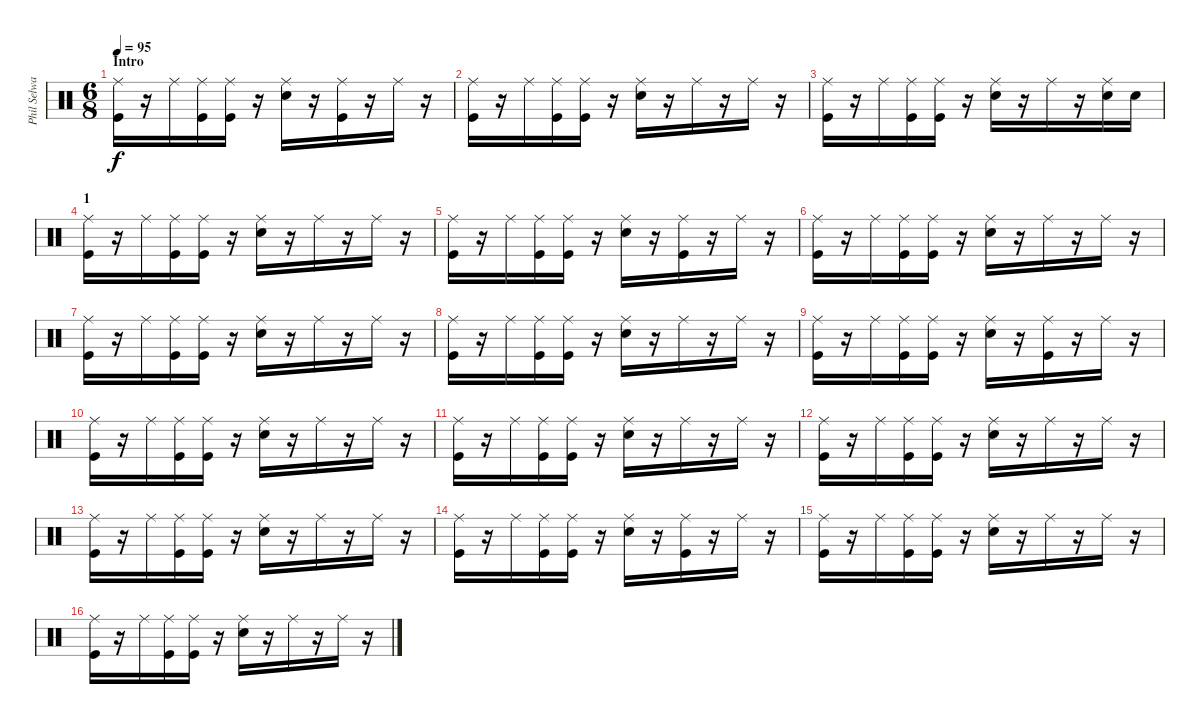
\track ("Phil Selway (Percussions)" "Phil Selwa") {instrument percussion}
\staff {score}
\articulation defaults
\ts (6 8)
\section ("" "Intro")
\tempo 95
\clef neutral
\ks c
("Ride (middle)" "Kick (hit)").16{dy f} r.16 "Ride (middle)".16 ("Ride (middle)" "Kick (hit)").16 ("Ride (middle)" "Kick (hit)").16 r.16 ("Ride (middle)" "Electric Snare (hit)").16 r.16 ("Ride (middle)" "Kick (hit)").16 r.16 "Ride (middle)".16 r.16 |
("Ride (middle)" "Kick (hit)").16 r.16 "Ride (middle)".16 ("Ride (middle)" "Kick (hit)").16 ("Ride (middle)" "Kick (hit)").16 r.16 ("Ride (middle)" "Electric Snare (hit)"{tr (38 32)}).16 r.16 "Ride (middle)".16 r.16 "Ride (middle)".16 r.16 |
("Ride (middle)" "Kick (hit)").16 r.16 "Ride (middle)".16 ("Ride (middle)" "Kick (hit)").16 ("Ride (middle)" "Kick (hit)").16 r.16 ("Ride (middle)" "Electric Snare (hit)").16 r.16 "Ride (middle)".16 r.16 ("Ride (middle)" "Electric Snare (hit)").16 "Electric Snare (hit)".16 |
\section ("" "1")
("Ride (middle)" "Kick (hit)").16 r.16 "Ride (middle)".16 ("Ride (middle)" "Kick (hit)").16 ("Ride (middle)" "Kick (hit)").16 r.16 ("Ride (middle)" "Electric Snare (hit)").16 r.16 "Ride (middle)".16 r.16 "Ride (middle)".16 r.16 |
("Ride (middle)" "Kick (hit)").16 r.16 "Ride (middle)".16 ("Ride (middle)" "Kick (hit)").16 ("Ride (middle)" "Kick (hit)").16 r.16 ("Ride (middle)" "Electric Snare (hit)").16 r.16 ("Ride (middle)" "Kick (hit)").16 r.16 "Ride (middle)".16 r.16 |
("Ride (middle)" "Kick (hit)").16 r.16 "Ride (middle)".16 ("Ride (middle)" "Kick (hit)").16 ("Ride (middle)" "Kick (hit)").16 r.16 ("Ride (middle)" "Electric Snare (hit)").16 r.16 "Ride (middle)".16 r.16 "Ride (middle)".16 r.16 |
("Ride (middle)" "Kick (hit)").16 r.16 "Ride (middle)".16 ("Ride (middle)" "Kick (hit)").16 ("Ride (middle)" "Kick (hit)").16 r.16 ("Ride (middle)" "Electric Snare (hit)").16 r.16 "Ride (middle)".16 r.16 "Ride (middle)".16 r.16 |
("Ride (middle)" "Kick (hit)").16 r.16 "Ride (middle)".16 ("Ride (middle)" "Kick (hit)").16 ("Ride (middle)" "Kick (hit)").16 r.16 ("Ride (middle)" "Electric Snare (hit)").16 r.16 "Ride (middle)".16 r.16 "Ride (middle)".16 r.16 |
("Ride (middle)" "Kick (hit)").16 r.16 "Ride (middle)".16 ("Ride (middle)" "Kick (hit)").16 ("Ride (middle)" "Kick (hit)").16 r.16 ("Ride (middle)" "Electric Snare (hit)").16 r.16 ("Ride (middle)" "Kick (hit)").16 r.16 "Ride (middle)".16 r.16 |
("Ride (middle)" "Kick (hit)").16 r.16 "Ride (middle)".16 ("Ride (middle)" "Kick (hit)").16 ("Ride (middle)" "Kick (hit)").16 r.16 ("Ride (middle)" "Electric Snare (hit)").16 r.16 "Ride (middle)".16 r.16 "Ride (middle)".16 r.16 |
("Ride (middle)" "Kick (hit)").16 r.16 "Ride (middle)".16 ("Ride (middle)" "Kick (hit)").16 ("Ride (middle)" "Kick (hit)").16 r.16 ("Ride (middle)" "Electric Snare (hit)").16 r.16 "Ride (middle)".16 r.16 "Ride (middle)".16 r.16 |
("Ride (middle)" "Kick (hit)").16 r.16 "Ride (middle)".16 ("Ride (middle)" "Kick (hit)").16 ("Ride (middle)" "Kick (hit)").16 r.16 ("Ride (middle)" "Electric Snare (hit)").16 r.16 "Ride (middle)".16 r.16 "Ride (middle)".16 r.16 |
("Ride (middle)" "Kick (hit)").16 r.16 "Ride (middle)".16 ("Ride (middle)" "Kick (hit)").16 ("Ride (middle)" "Kick (hit)").16 r.16 ("Ride (middle)" "Electric Snare (hit)").16 r.16 "Ride (middle)".16 r.16 "Ride (middle)".16 r.16 |
("Ride (middle)" "Kick (hit)").16 r.16 "Ride (middle)".16 ("Ride (middle)" "Kick (hit)").16 ("Ride (middle)" "Kick (hit)").16 r.16 ("Ride (middle)" "Electric Snare (hit)").16 r.16 ("Ride (middle)" "Kick (hit)").16 r.16 "Ride (middle)".16 r.16 |
("Ride (middle)" "Kick (hit)").16 r.16 "Ride (middle)".16 ("Ride (middle)" "Kick (hit)").16 ("Ride (middle)" "Kick (hit)").16 r.16 ("Ride (middle)" "Electric Snare (hit)").16 r.16 "Ride (middle)".16 r.16 "Ride (middle)".16 r.16 |
("Ride (middle)" "Kick (hit)").16 r.16 "Ride (middle)".16 ("Ride (middle)" "Kick (hit)").16 ("Ride (middle)" "Kick (hit)").16 r.16 ("Ride (middle)" "Electric Snare (hit)").16 r.16 "Ride (middle)".16 r.16 "Ride (middle)".16 r.16
